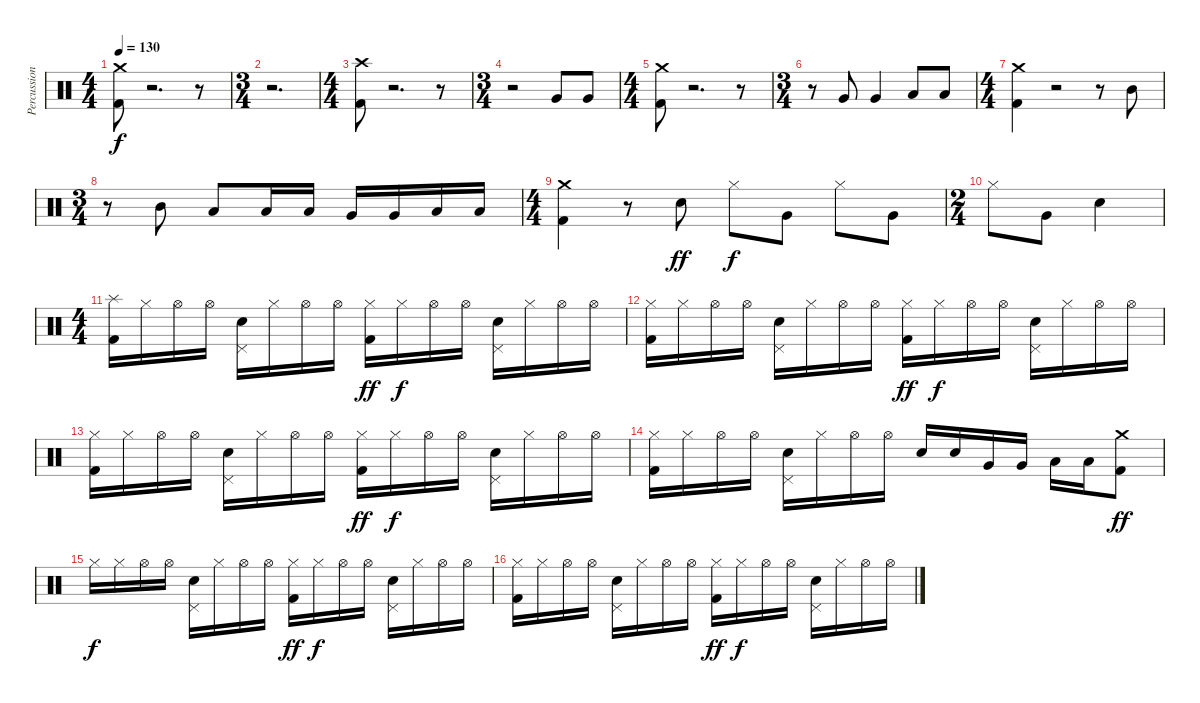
\track ("Percussion" "Percussion") {instrument percussion}
\staff {score}
\articulation defaults
\ts (4 4)
\tempo 130
\clef neutral
\ks c
("Kick (hit) 2" "Crash medium (hit)").8{dy f} r.2{d} r.8 |
\ts (3 4)
r.2{d} |
\ts (4 4)
("Kick (hit) 2" "Crash high (hit)").8 r.2{d} r.8 |
\ts (3 4)
r.2 "Very Low Tom (hit)".8 "Very Low Tom (hit)".8 |
\ts (4 4)
("Kick (hit) 2" "Crash medium (hit)").8 r.2{d} r.8 |
\ts (3 4)
r.8 "Very Low Tom (hit)".8 "Very Low Tom (hit)".4 "Low Floor Tom (hit)".8 "Low Floor Tom (hit)".8 |
\ts (4 4)
("Kick (hit) 2" "Crash medium (hit)").4 r.2 r.8 "Mid Tom (hit)".8 |
\ts (3 4)
r.8 "Mid Tom (hit)".8 "Low Tom (hit)".8 "Low Tom (hit)".16 "Low Tom (hit)".16 "Very Low Tom (hit)".16 "Very Low Tom (hit)".16 "Low Floor Tom (hit)".16 "Low Floor Tom (hit)".16 |
\ts (4 4)
("Kick (hit) 2" "Crash medium (hit)").4 r.8 "Snare (hit) 2".8{dy ff} "Hi-Hat (closed)".8{dy f} "Very Low Tom (hit)".8 "Hi-Hat (closed)".8 "Very Low Tom (hit)".8 |
\ts (2 4)
"Hi-Hat (closed)".8 "Very Low Tom (hit)".8 "Snare (hit) 2".4 |
\ts (4 4)
("Kick (hit) 2" "Splash (hit)").16 "Hi-Hat (closed)".16 "Hi-Hat (open)".16 "Hi-Hat (open)".16 ("Snare (hit) 2" "Pedal Hi-Hat (hit)").16 "Hi-Hat (closed)".16 "Hi-Hat (open)".16 "Hi-Hat (open)".16 ("Kick (hit) 2" "Hi-Hat (closed)").16{dy ff} "Hi-Hat (closed)".16{dy f} "Hi-Hat (open)".16 "Hi-Hat (open)".16 ("Snare (hit) 2" "Pedal Hi-Hat (hit)").16 "Hi-Hat (closed)".16 "Hi-Hat (open)".16 "Hi-Hat (open)".16 |
("Kick (hit) 2" "Hi-Hat (closed)").16 "Hi-Hat (closed)".16 "Hi-Hat (open)".16 "Hi-Hat (open)".16 ("Snare (hit) 2" "Pedal Hi-Hat (hit)").16 "Hi-Hat (closed)".16 "Hi-Hat (open)".16 "Hi-Hat (open)".16 ("Kick (hit) 2" "Hi-Hat (closed)").16{dy ff} "Hi-Hat (closed)".16{dy f} "Hi-Hat (open)".16 "Hi-Hat (open)".16 ("Snare (hit) 2" "Pedal Hi-Hat (hit)").16 "Hi-Hat (closed)".16 "Hi-Hat (open)".16 "Hi-Hat (open)".16 |
("Kick (hit) 2" "Hi-Hat (closed)").16 "Hi-Hat (closed)".16 "Hi-Hat (open)".16 "Hi-Hat (open)".16 ("Snare (hit) 2" "Pedal Hi-Hat (hit)").16 "Hi-Hat (closed)".16 "Hi-Hat (open)".16 "Hi-Hat (open)".16 ("Kick (hit) 2" "Hi-Hat (closed)").16{dy ff} "Hi-Hat (closed)".16{dy f} "Hi-Hat (open)".16 "Hi-Hat (open)".16 ("Snare (hit) 2" "Pedal Hi-Hat (hit)").16 "Hi-Hat (closed)".16 "Hi-Hat (open)".16 "Hi-Hat (open)".16 |
("Kick (hit) 2" "Hi-Hat (closed)").16 "Hi-Hat (closed)".16 "Hi-Hat (open)".16 "Hi-Hat (open)".16 ("Snare (hit) 2" "Pedal Hi-Hat (hit)").16 "Hi-Hat (closed)".16 "Hi-Hat (open)".16 "Hi-Hat (open)".16 "Snare (hit) 2".16 "Snare (hit) 2".16 "Very Low Tom (hit)".16 "Very Low Tom (hit)".16 "Low Floor Tom (hit)".16 "Low Floor Tom (hit)".16 ("Kick (hit) 2" "Crash medium (hit)").8{dy ff} |
"Hi-Hat (closed)".16{dy f} "Hi-Hat (closed)".16 "Hi-Hat (open)".16 "Hi-Hat (open)".16 ("Snare (hit) 2" "Pedal Hi-Hat (hit)").16 "Hi-Hat (closed)".16 "Hi-Hat (open)".16 "Hi-Hat (open)".16 ("Kick (hit) 2" "Hi-Hat (closed)").16{dy ff} "Hi-Hat (closed)".16{dy f} "Hi-Hat (open)".16 "Hi-Hat (open)".16 ("Snare (hit) 2" "Pedal Hi-Hat (hit)").16 "Hi-Hat (closed)".16 "Hi-Hat (open)".16 "Hi-Hat (open)".16 |
("Kick (hit) 2" "Hi-Hat (closed)").16 "Hi-Hat (closed)".16 "Hi-Hat (open)".16 "Hi-Hat (open)".16 ("Snare (hit) 2" "Pedal Hi-Hat (hit)").16 "Hi-Hat (closed)".16 "Hi-Hat (open)".16 "Hi-Hat (open)".16 ("Kick (hit) 2" "Hi-Hat (closed)").16{dy ff} "Hi-Hat (closed)".16{dy f} "Hi-Hat (open)".16 "Hi-Hat (open)".16 ("Snare (hit) 2" "Pedal Hi-Hat (hit)").16 "Hi-Hat (closed)".16 "Hi-Hat (open)".16 "Hi-Hat (open)".16
